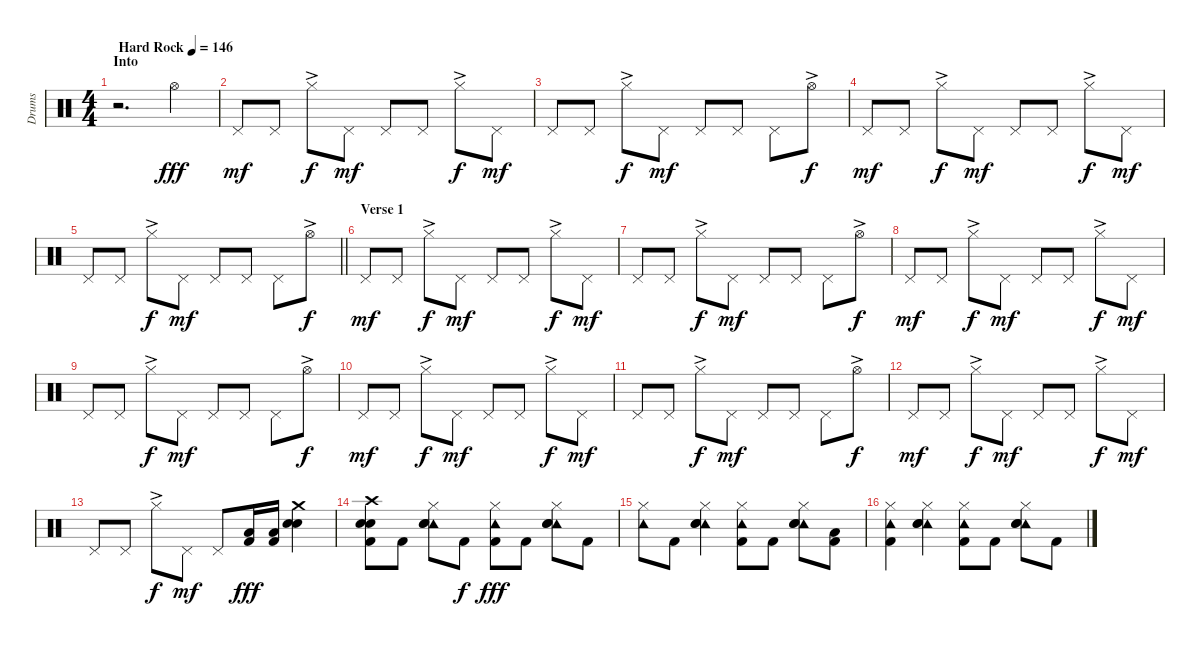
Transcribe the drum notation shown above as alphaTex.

\track ("Drums" "Drums") {instrument percussion}
\staff {score}
\articulation defaults
\ts (4 4)
\section ("" "Into")
\tempo (146 "Hard Rock")
\clef neutral
\ks c
r.2{d dy fff} "Hi-Hat (open)".4 |
"Pedal Hi-Hat (hit)".8{dy mf} "Pedal Hi-Hat (hit)".8 "Hi-Hat (closed)"{ac}.8{dy f} "Pedal Hi-Hat (hit)".8{dy mf} "Pedal Hi-Hat (hit)".8 "Pedal Hi-Hat (hit)".8 "Hi-Hat (closed)"{ac}.8{dy f} "Pedal Hi-Hat (hit)".8{dy mf} |
"Pedal Hi-Hat (hit)".8 "Pedal Hi-Hat (hit)".8 "Hi-Hat (closed)"{ac}.8{dy f} "Pedal Hi-Hat (hit)".8{dy mf} "Pedal Hi-Hat (hit)".8 "Pedal Hi-Hat (hit)".8 "Pedal Hi-Hat (hit)".8 "Hi-Hat (open)"{ac}.8{dy f} |
"Pedal Hi-Hat (hit)".8{dy mf} "Pedal Hi-Hat (hit)".8 "Hi-Hat (closed)"{ac}.8{dy f} "Pedal Hi-Hat (hit)".8{dy mf} "Pedal Hi-Hat (hit)".8 "Pedal Hi-Hat (hit)".8 "Hi-Hat (closed)"{ac}.8{dy f} "Pedal Hi-Hat (hit)".8{dy mf} |
\barLineRight lightlight "Pedal Hi-Hat (hit)".8 "Pedal Hi-Hat (hit)".8 "Hi-Hat (closed)"{ac}.8{dy f} "Pedal Hi-Hat (hit)".8{dy mf} "Pedal Hi-Hat (hit)".8 "Pedal Hi-Hat (hit)".8 "Pedal Hi-Hat (hit)".8 "Hi-Hat (open)"{ac}.8{dy f}
|
\section ("" "Verse 1")
"Pedal Hi-Hat (hit)".8{dy mf} "Pedal Hi-Hat (hit)".8 "Hi-Hat (closed)"{ac}.8{dy f} "Pedal Hi-Hat (hit)".8{dy mf} "Pedal Hi-Hat (hit)".8 "Pedal Hi-Hat (hit)".8 "Hi-Hat (closed)"{ac}.8{dy f} "Pedal Hi-Hat (hit)".8{dy mf} |
"Pedal Hi-Hat (hit)".8 "Pedal Hi-Hat (hit)".8 "Hi-Hat (closed)"{ac}.8{dy f} "Pedal Hi-Hat (hit)".8{dy mf} "Pedal Hi-Hat (hit)".8 "Pedal Hi-Hat (hit)".8 "Pedal Hi-Hat (hit)".8 "Hi-Hat (open)"{ac}.8{dy f} |
"Pedal Hi-Hat (hit)".8{dy mf} "Pedal Hi-Hat (hit)".8 "Hi-Hat (closed)"{ac}.8{dy f} "Pedal Hi-Hat (hit)".8{dy mf} "Pedal Hi-Hat (hit)".8 "Pedal Hi-Hat (hit)".8 "Hi-Hat (closed)"{ac}.8{dy f} "Pedal Hi-Hat (hit)".8{dy mf} |
"Pedal Hi-Hat (hit)".8 "Pedal Hi-Hat (hit)".8 "Hi-Hat (closed)"{ac}.8{dy f} "Pedal Hi-Hat (hit)".8{dy mf} "Pedal Hi-Hat (hit)".8 "Pedal Hi-Hat (hit)".8 "Pedal Hi-Hat (hit)".8 "Hi-Hat (open)"{ac}.8{dy f} |
"Pedal Hi-Hat (hit)".8{dy mf} "Pedal Hi-Hat (hit)".8 "Hi-Hat (closed)"{ac}.8{dy f} "Pedal Hi-Hat (hit)".8{dy mf} "Pedal Hi-Hat (hit)".8 "Pedal Hi-Hat (hit)".8 "Hi-Hat (closed)"{ac}.8{dy f} "Pedal Hi-Hat (hit)".8{dy mf} |
"Pedal Hi-Hat (hit)".8 "Pedal Hi-Hat (hit)".8 "Hi-Hat (closed)"{ac}.8{dy f} "Pedal Hi-Hat (hit)".8{dy mf} "Pedal Hi-Hat (hit)".8 "Pedal Hi-Hat (hit)".8 "Pedal Hi-Hat (hit)".8 "Hi-Hat (open)"{ac}.8{dy f} |
"Pedal Hi-Hat (hit)".8{dy mf} "Pedal Hi-Hat (hit)".8 "Hi-Hat (closed)"{ac}.8{dy f} "Pedal Hi-Hat (hit)".8{dy mf} "Pedal Hi-Hat (hit)".8 "Pedal Hi-Hat (hit)".8 "Hi-Hat (closed)"{ac}.8{dy f} "Pedal Hi-Hat (hit)".8{dy mf} |
"Pedal Hi-Hat (hit)".8 "Pedal Hi-Hat (hit)".8 "Hi-Hat (closed)"{ac}.8{dy f} "Pedal Hi-Hat (hit)".8{dy mf} "Pedal Hi-Hat (hit)".8 ("Low Tom (hit)" "Kick (hit) 2").16{dy fff} ("Low Tom (hit)" "Kick (hit) 2").16 ("Crash medium (hit)" "Electric Snare (hit)" "Electric Snare (hit)").4 |
("Crash high (hit)" "Electric Snare (hit)" "Electric Snare (hit)" "Kick (hit) 2").8 "Kick (hit) 2".8 ("Hi-Hat (closed)" "Tambourine (hit)" "Electric Snare (hit)" "Electric Snare (hit)").8 "Kick (hit) 2".8{dy f} ("Hi-Hat (closed)" "Tambourine (hit)" "Kick (hit) 2").8{dy fff} "Kick (hit) 2".8 ("Hi-Hat (closed)" "Tambourine (hit)" "Electric Snare (hit)" "Electric Snare (hit)").8 "Kick (hit) 2".8 |
("Hi-Hat (closed)" "Tambourine (hit)").8 "Kick (hit) 2".8 ("Hi-Hat (closed)" "Tambourine (hit)" "Electric Snare (hit)" "Electric Snare (hit)").4 ("Hi-Hat (closed)" "Tambourine (hit)" "Kick (hit) 2").8 "Kick (hit) 2".8 ("Hi-Hat (closed)" "Tambourine (hit)" "Electric Snare (hit)" "Electric Snare (hit)").8 ("Low Tom (hit)" "Kick (hit) 2").8 |
("Hi-Hat (closed)" "Tambourine (hit)" "Kick (hit) 2").4 ("Hi-Hat (closed)" "Tambourine (hit)" "Electric Snare (hit)" "Electric Snare (hit)").4 ("Hi-Hat (closed)" "Tambourine (hit)" "Kick (hit) 2").8 "Kick (hit) 2".8 ("Hi-Hat (closed)" "Tambourine (hit)" "Electric Snare (hit)" "Electric Snare (hit)").8 "Kick (hit) 2".8
